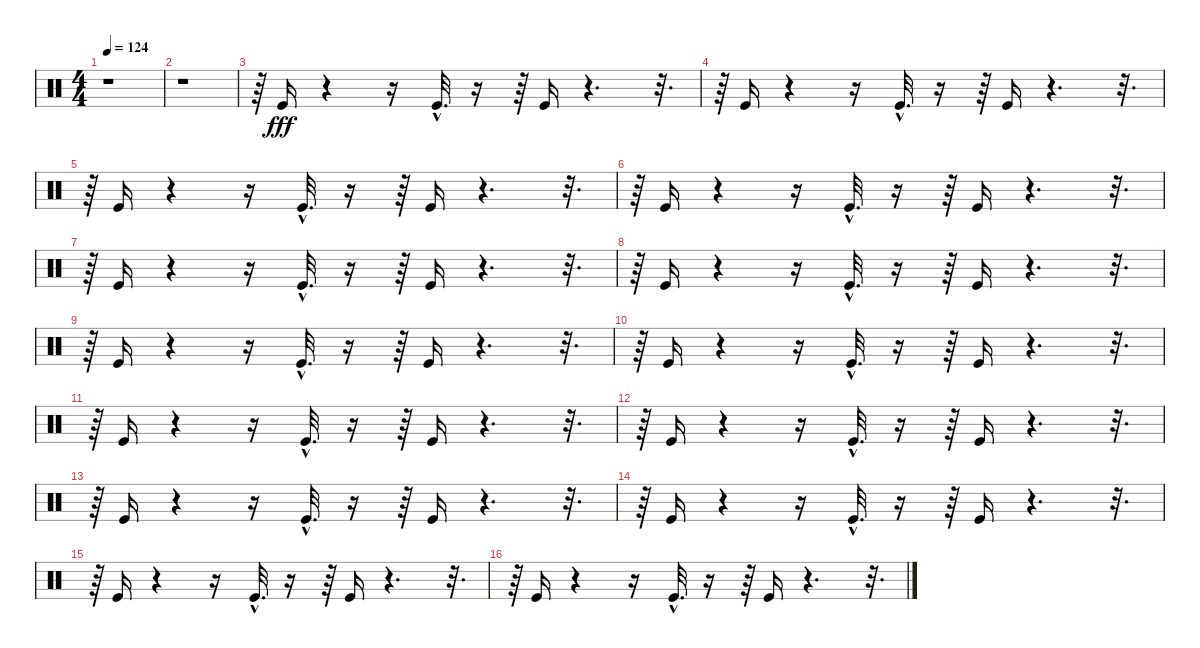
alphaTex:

\track "" {instrument percussion}
\staff {score}
\articulation defaults
\ts (4 4)
\tempo 124
\clef neutral
\ks c
r.1{dy fff} |
r.1 |
r.64 "Kick (hit)".16 r.4 r.16 "Kick (hit)"{hac}.32{d} r.16 r.64 "Kick (hit)".16 r.4{d} r.32{d} |
r.64 "Kick (hit)".16 r.4 r.16 "Kick (hit)"{hac}.32{d} r.16 r.64 "Kick (hit)".16 r.4{d} r.32{d} |
r.64 "Kick (hit)".16 r.4 r.16 "Kick (hit)"{hac}.32{d} r.16 r.64 "Kick (hit)".16 r.4{d} r.32{d} |
r.64 "Kick (hit)".16 r.4 r.16 "Kick (hit)"{hac}.32{d} r.16 r.64 "Kick (hit)".16 r.4{d} r.32{d} |
r.64 "Kick (hit)".16 r.4 r.16 "Kick (hit)"{hac}.32{d} r.16 r.64 "Kick (hit)".16 r.4{d} r.32{d} |
r.64 "Kick (hit)".16 r.4 r.16 "Kick (hit)"{hac}.32{d} r.16 r.64 "Kick (hit)".16 r.4{d} r.32{d} |
r.64 "Kick (hit)".16 r.4 r.16 "Kick (hit)"{hac}.32{d} r.16 r.64 "Kick (hit)".16 r.4{d} r.32{d} |
r.64 "Kick (hit)".16 r.4 r.16 "Kick (hit)"{hac}.32{d} r.16 r.64 "Kick (hit)".16 r.4{d} r.32{d} |
r.64 "Kick (hit)".16 r.4 r.16 "Kick (hit)"{hac}.32{d} r.16 r.64 "Kick (hit)".16 r.4{d} r.32{d} |
r.64 "Kick (hit)".16 r.4 r.16 "Kick (hit)"{hac}.32{d} r.16 r.64 "Kick (hit)".16 r.4{d} r.32{d} |
r.64 "Kick (hit)".16 r.4 r.16 "Kick (hit)"{hac}.32{d} r.16 r.64 "Kick (hit)".16 r.4{d} r.32{d} |
r.64 "Kick (hit)".16 r.4 r.16 "Kick (hit)"{hac}.32{d} r.16 r.64 "Kick (hit)".16 r.4{d} r.32{d} |
r.64 "Kick (hit)".16 r.4 r.16 "Kick (hit)"{hac}.32{d} r.16 r.64 "Kick (hit)".16 r.4{d} r.32{d} |
r.64 "Kick (hit)".16 r.4 r.16 "Kick (hit)"{hac}.32{d} r.16 r.64 "Kick (hit)".16 r.4{d} r.32{d}
